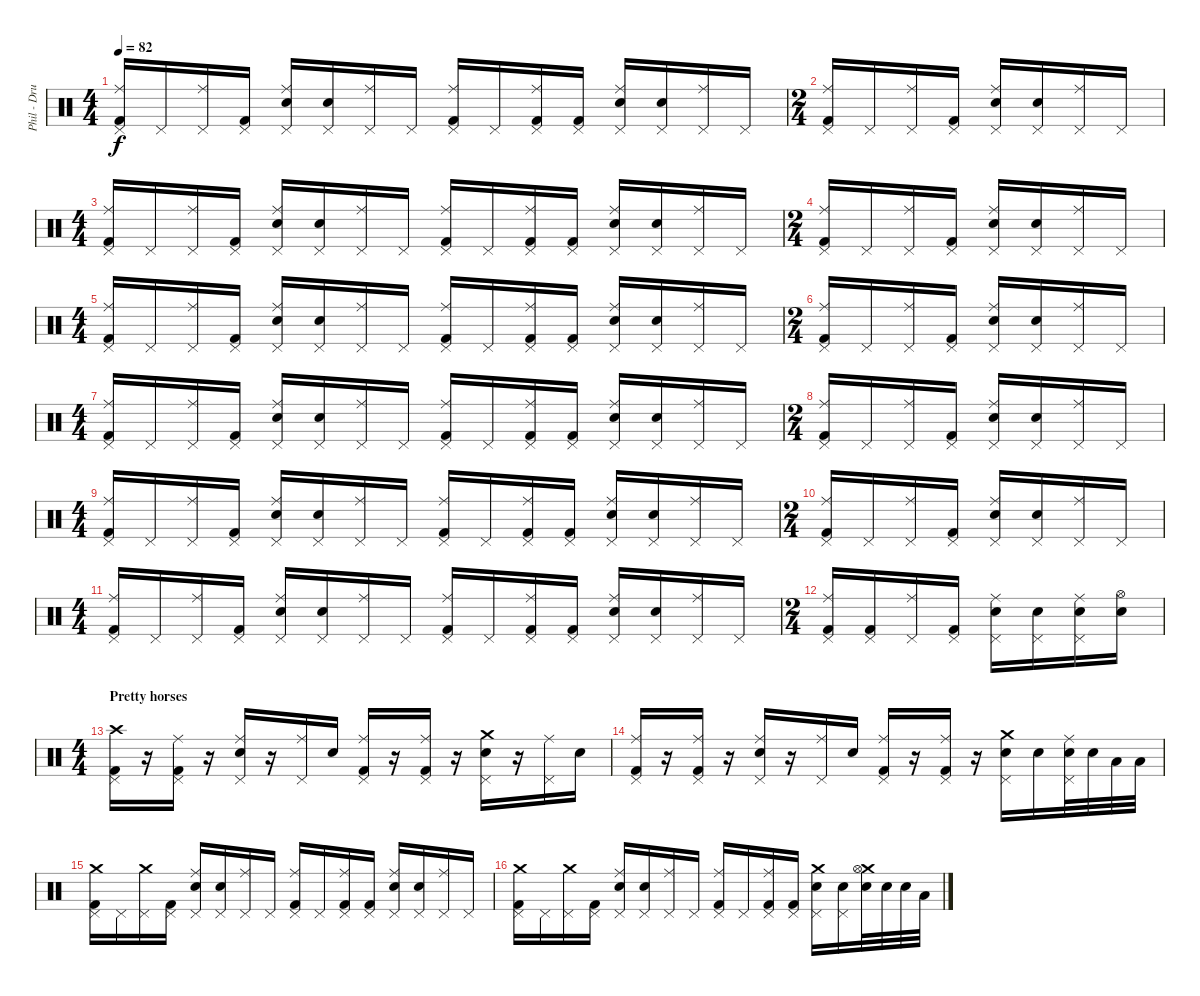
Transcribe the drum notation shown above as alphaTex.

\track ("Phil - Drums" "Phil - Dru") {instrument percussion}
\staff {score}
\articulation defaults
\ts (4 4)
\tempo 82
\clef neutral
\ks c
("Ride (middle)" "Kick (hit) 2" "Pedal Hi-Hat (hit)").16{dy f} "Pedal Hi-Hat (hit)".16 ("Ride (middle)" "Pedal Hi-Hat (hit)").16 ("Kick (hit) 2" "Pedal Hi-Hat (hit)").16 ("Ride (middle)" "Electric Snare (hit)" "Pedal Hi-Hat (hit)").16 ("Electric Snare (hit)" "Pedal Hi-Hat (hit)").16 ("Ride (middle)" "Pedal Hi-Hat (hit)").16 "Pedal Hi-Hat (hit)".16 ("Ride (middle)" "Kick (hit) 2" "Pedal Hi-Hat (hit)").16 "Pedal Hi-Hat (hit)".16 ("Ride (middle)" "Kick (hit) 2" "Pedal Hi-Hat (hit)").16 ("Kick (hit) 2" "Pedal Hi-Hat (hit)").16 ("Ride (middle)" "Electric Snare (hit)" "Pedal Hi-Hat (hit)").16 ("Electric Snare (hit)" "Pedal Hi-Hat (hit)").16 ("Ride (middle)" "Pedal Hi-Hat (hit)").16 "Pedal Hi-Hat (hit)".16 |
\ts (2 4)
("Ride (middle)" "Kick (hit) 2" "Pedal Hi-Hat (hit)").16 "Pedal Hi-Hat (hit)".16 ("Ride (middle)" "Pedal Hi-Hat (hit)").16 ("Kick (hit) 2" "Pedal Hi-Hat (hit)").16 ("Ride (middle)" "Electric Snare (hit)" "Pedal Hi-Hat (hit)").16 ("Electric Snare (hit)" "Pedal Hi-Hat (hit)").16 ("Ride (middle)" "Pedal Hi-Hat (hit)").16 "Pedal Hi-Hat (hit)".16 |
\ts (4 4)
("Ride (middle)" "Kick (hit) 2" "Pedal Hi-Hat (hit)").16 "Pedal Hi-Hat (hit)".16 ("Ride (middle)" "Pedal Hi-Hat (hit)").16 ("Kick (hit) 2" "Pedal Hi-Hat (hit)").16 ("Ride (middle)" "Electric Snare (hit)" "Pedal Hi-Hat (hit)").16 ("Electric Snare (hit)" "Pedal Hi-Hat (hit)").16 ("Ride (middle)" "Pedal Hi-Hat (hit)").16 "Pedal Hi-Hat (hit)".16 ("Ride (middle)" "Kick (hit) 2" "Pedal Hi-Hat (hit)").16 "Pedal Hi-Hat (hit)".16 ("Ride (middle)" "Kick (hit) 2" "Pedal Hi-Hat (hit)").16 ("Kick (hit) 2" "Pedal Hi-Hat (hit)").16 ("Ride (middle)" "Electric Snare (hit)" "Pedal Hi-Hat (hit)").16 ("Electric Snare (hit)" "Pedal Hi-Hat (hit)").16 ("Ride (middle)" "Pedal Hi-Hat (hit)").16 "Pedal Hi-Hat (hit)".16 |
\ts (2 4)
("Ride (middle)" "Kick (hit) 2" "Pedal Hi-Hat (hit)").16 "Pedal Hi-Hat (hit)".16 ("Ride (middle)" "Pedal Hi-Hat (hit)").16 ("Kick (hit) 2" "Pedal Hi-Hat (hit)").16 ("Ride (middle)" "Electric Snare (hit)" "Pedal Hi-Hat (hit)").16 ("Electric Snare (hit)" "Pedal Hi-Hat (hit)").16 ("Ride (middle)" "Pedal Hi-Hat (hit)").16 "Pedal Hi-Hat (hit)".16 |
\ts (4 4)
("Ride (middle)" "Kick (hit) 2" "Pedal Hi-Hat (hit)").16 "Pedal Hi-Hat (hit)".16 ("Ride (middle)" "Pedal Hi-Hat (hit)").16 ("Kick (hit) 2" "Pedal Hi-Hat (hit)").16 ("Ride (middle)" "Electric Snare (hit)" "Pedal Hi-Hat (hit)").16 ("Electric Snare (hit)" "Pedal Hi-Hat (hit)").16 ("Ride (middle)" "Pedal Hi-Hat (hit)").16 "Pedal Hi-Hat (hit)".16 ("Ride (middle)" "Kick (hit) 2" "Pedal Hi-Hat (hit)").16 "Pedal Hi-Hat (hit)".16 ("Ride (middle)" "Kick (hit) 2" "Pedal Hi-Hat (hit)").16 ("Kick (hit) 2" "Pedal Hi-Hat (hit)").16 ("Ride (middle)" "Electric Snare (hit)" "Pedal Hi-Hat (hit)").16 ("Electric Snare (hit)" "Pedal Hi-Hat (hit)").16 ("Ride (middle)" "Pedal Hi-Hat (hit)").16 "Pedal Hi-Hat (hit)".16 |
\ts (2 4)
("Ride (middle)" "Kick (hit) 2" "Pedal Hi-Hat (hit)").16 "Pedal Hi-Hat (hit)".16 ("Ride (middle)" "Pedal Hi-Hat (hit)").16 ("Kick (hit) 2" "Pedal Hi-Hat (hit)").16 ("Ride (middle)" "Electric Snare (hit)" "Pedal Hi-Hat (hit)").16 ("Electric Snare (hit)" "Pedal Hi-Hat (hit)").16 ("Ride (middle)" "Pedal Hi-Hat (hit)").16 "Pedal Hi-Hat (hit)".16 |
\ts (4 4)
("Ride (middle)" "Kick (hit) 2" "Pedal Hi-Hat (hit)").16 "Pedal Hi-Hat (hit)".16 ("Ride (middle)" "Pedal Hi-Hat (hit)").16 ("Kick (hit) 2" "Pedal Hi-Hat (hit)").16 ("Ride (middle)" "Electric Snare (hit)" "Pedal Hi-Hat (hit)").16 ("Electric Snare (hit)" "Pedal Hi-Hat (hit)").16 ("Ride (middle)" "Pedal Hi-Hat (hit)").16 "Pedal Hi-Hat (hit)".16 ("Ride (middle)" "Kick (hit) 2" "Pedal Hi-Hat (hit)").16 "Pedal Hi-Hat (hit)".16 ("Ride (middle)" "Kick (hit) 2" "Pedal Hi-Hat (hit)").16 ("Kick (hit) 2" "Pedal Hi-Hat (hit)").16 ("Ride (middle)" "Electric Snare (hit)" "Pedal Hi-Hat (hit)").16 ("Electric Snare (hit)" "Pedal Hi-Hat (hit)").16 ("Ride (middle)" "Pedal Hi-Hat (hit)").16 "Pedal Hi-Hat (hit)".16 |
\ts (2 4)
("Ride (middle)" "Kick (hit) 2" "Pedal Hi-Hat (hit)").16 "Pedal Hi-Hat (hit)".16 ("Ride (middle)" "Pedal Hi-Hat (hit)").16 ("Kick (hit) 2" "Pedal Hi-Hat (hit)").16 ("Ride (middle)" "Electric Snare (hit)" "Pedal Hi-Hat (hit)").16 ("Electric Snare (hit)" "Pedal Hi-Hat (hit)").16 ("Ride (middle)" "Pedal Hi-Hat (hit)").16 "Pedal Hi-Hat (hit)".16 |
\ts (4 4)
("Ride (middle)" "Kick (hit) 2" "Pedal Hi-Hat (hit)").16 "Pedal Hi-Hat (hit)".16 ("Ride (middle)" "Pedal Hi-Hat (hit)").16 ("Kick (hit) 2" "Pedal Hi-Hat (hit)").16 ("Ride (middle)" "Electric Snare (hit)" "Pedal Hi-Hat (hit)").16 ("Electric Snare (hit)" "Pedal Hi-Hat (hit)").16 ("Ride (middle)" "Pedal Hi-Hat (hit)").16 "Pedal Hi-Hat (hit)".16 ("Ride (middle)" "Kick (hit) 2" "Pedal Hi-Hat (hit)").16 "Pedal Hi-Hat (hit)".16 ("Ride (middle)" "Kick (hit) 2" "Pedal Hi-Hat (hit)").16 ("Kick (hit) 2" "Pedal Hi-Hat (hit)").16 ("Ride (middle)" "Electric Snare (hit)" "Pedal Hi-Hat (hit)").16 ("Electric Snare (hit)" "Pedal Hi-Hat (hit)").16 ("Ride (middle)" "Pedal Hi-Hat (hit)").16 "Pedal Hi-Hat (hit)".16 |
\ts (2 4)
("Ride (middle)" "Kick (hit) 2" "Pedal Hi-Hat (hit)").16 "Pedal Hi-Hat (hit)".16 ("Ride (middle)" "Pedal Hi-Hat (hit)").16 ("Kick (hit) 2" "Pedal Hi-Hat (hit)").16 ("Ride (middle)" "Electric Snare (hit)" "Pedal Hi-Hat (hit)").16 ("Electric Snare (hit)" "Pedal Hi-Hat (hit)").16 ("Ride (middle)" "Pedal Hi-Hat (hit)").16 "Pedal Hi-Hat (hit)".16 |
\ts (4 4)
("Ride (middle)" "Kick (hit) 2" "Pedal Hi-Hat (hit)").16 "Pedal Hi-Hat (hit)".16 ("Ride (middle)" "Pedal Hi-Hat (hit)").16 ("Kick (hit) 2" "Pedal Hi-Hat (hit)").16 ("Ride (middle)" "Electric Snare (hit)" "Pedal Hi-Hat (hit)").16 ("Electric Snare (hit)" "Pedal Hi-Hat (hit)").16 ("Ride (middle)" "Pedal Hi-Hat (hit)").16 "Pedal Hi-Hat (hit)".16 ("Ride (middle)" "Kick (hit) 2" "Pedal Hi-Hat (hit)").16 "Pedal Hi-Hat (hit)".16 ("Ride (middle)" "Kick (hit) 2" "Pedal Hi-Hat (hit)").16 ("Kick (hit) 2" "Pedal Hi-Hat (hit)").16 ("Ride (middle)" "Electric Snare (hit)" "Pedal Hi-Hat (hit)").16 ("Electric Snare (hit)" "Pedal Hi-Hat (hit)").16 ("Ride (middle)" "Pedal Hi-Hat (hit)").16 "Pedal Hi-Hat (hit)".16 |
\ts (2 4)
("Ride (middle)" "Kick (hit) 2" "Pedal Hi-Hat (hit)").16 ("Kick (hit) 2" "Pedal Hi-Hat (hit)").16 ("Ride (middle)" "Pedal Hi-Hat (hit)").16 ("Kick (hit) 2" "Pedal Hi-Hat (hit)").16 ("Ride (middle)" "Electric Snare (hit)" "Pedal Hi-Hat (hit)").16 ("Electric Snare (hit)" "Pedal Hi-Hat (hit)").16 ("Ride (middle)" "Electric Snare (hit)" "Pedal Hi-Hat (hit)").16 ("Electric Snare (hit)" "Hi-Hat (open)").16 |
\ts (4 4)
\section ("" "Pretty horses")
("Crash high (hit)" "Kick (hit) 2" "Pedal Hi-Hat (hit)").16 r.16 ("Ride (middle)" "Kick (hit) 2" "Pedal Hi-Hat (hit)").16 r.16 ("Ride (middle)" "Electric Snare (hit)" "Pedal Hi-Hat (hit)").16 r.16 ("Ride (middle)" "Pedal Hi-Hat (hit)").16 "Electric Snare (hit)".16 ("Ride (middle)" "Kick (hit) 2" "Pedal Hi-Hat (hit)").16 r.16 ("Ride (middle)" "Kick (hit) 2" "Pedal Hi-Hat (hit)").16 r.16 ("Crash medium (hit)" "Electric Snare (hit)" "Pedal Hi-Hat (hit)").16 r.16 ("Ride (middle)" "Pedal Hi-Hat (hit)").16 "Electric Snare (hit)".16 |
("Ride (middle)" "Kick (hit) 2" "Pedal Hi-Hat (hit)").16 r.16 ("Ride (middle)" "Kick (hit) 2" "Pedal Hi-Hat (hit)").16 r.16 ("Ride (middle)" "Electric Snare (hit)" "Pedal Hi-Hat (hit)").16 r.16 ("Ride (middle)" "Pedal Hi-Hat (hit)").16 "Electric Snare (hit)".16 ("Ride (middle)" "Kick (hit) 2" "Pedal Hi-Hat (hit)").16 r.16 ("Ride (middle)" "Kick (hit) 2" "Pedal Hi-Hat (hit)").16 r.16 ("Crash medium (hit)" "Electric Snare (hit)" "Pedal Hi-Hat (hit)").16 "Electric Snare (hit)".16 ("Ride (middle)" "Electric Snare (hit)" "Pedal Hi-Hat (hit)").32 "Electric Snare (hit)".32 "Low Tom (hit)".32 "Low Tom (hit)".32 |
("Crash medium (hit)" "Kick (hit) 2" "Pedal Hi-Hat (hit)").16 "Pedal Hi-Hat (hit)".16 ("Crash medium (hit)" "Pedal Hi-Hat (hit)").16 ("Kick (hit) 2" "Pedal Hi-Hat (hit)").16 ("Ride (middle)" "Electric Snare (hit)" "Pedal Hi-Hat (hit)").16 ("Electric Snare (hit)" "Pedal Hi-Hat (hit)").16 ("Ride (middle)" "Pedal Hi-Hat (hit)").16 "Pedal Hi-Hat (hit)".16 ("Ride (middle)" "Kick (hit) 2" "Pedal Hi-Hat (hit)").16 "Pedal Hi-Hat (hit)".16 ("Ride (middle)" "Kick (hit) 2" "Pedal Hi-Hat (hit)").16 ("Kick (hit) 2" "Pedal Hi-Hat (hit)").16 ("Ride (middle)" "Electric Snare (hit)" "Pedal Hi-Hat (hit)").16 ("Electric Snare (hit)" "Pedal Hi-Hat (hit)").16 ("Ride (middle)" "Pedal Hi-Hat (hit)").16 "Pedal Hi-Hat (hit)".16 |
("Crash medium (hit)" "Kick (hit) 2" "Pedal Hi-Hat (hit)").16 "Pedal Hi-Hat (hit)".16 ("Crash medium (hit)" "Pedal Hi-Hat (hit)").16 ("Kick (hit) 2" "Pedal Hi-Hat (hit)").16 ("Ride (middle)" "Electric Snare (hit)" "Pedal Hi-Hat (hit)").16 ("Electric Snare (hit)" "Pedal Hi-Hat (hit)").16 ("Ride (middle)" "Pedal Hi-Hat (hit)").16 "Pedal Hi-Hat (hit)".16 ("Ride (middle)" "Kick (hit) 2" "Pedal Hi-Hat (hit)").16 "Pedal Hi-Hat (hit)".16 ("Ride (middle)" "Kick (hit) 2" "Pedal Hi-Hat (hit)").16 ("Kick (hit) 2" "Pedal Hi-Hat (hit)").16 ("Crash medium (hit)" "Electric Snare (hit)" "Pedal Hi-Hat (hit)").16 ("Electric Snare (hit)" "Pedal Hi-Hat (hit)").16 ("Crash medium (hit)" "Electric Snare (hit)" "Hi-Hat (open)").32 "Electric Snare (hit)".32 "Electric Snare (hit)".32 "Low Tom (hit)".32
